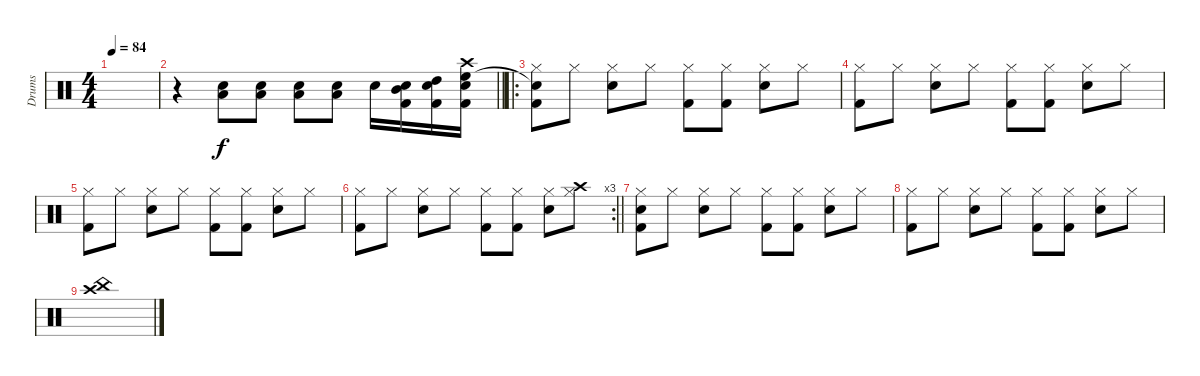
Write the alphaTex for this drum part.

\track ("Drums" "Drums") {instrument percussion}
\staff {score}
\articulation defaults
\ts (4 4)
\tempo 84
\clef neutral
\ks c
|
\barLineRight lightlight
r.4 ("Low Tom (hit)" "Snare (hit) 2").8 ("Low Tom (hit)" "Snare (hit) 2").8 ("Low Tom (hit)" "Snare (hit) 2").8 ("Low Tom (hit)" "Snare (hit) 2").8 "Snare (hit) 2".16 ("Snare (hit) 2" "Kick (hit) 2" "Mid Tom (hit)").16 ("Snare (hit) 2" "Kick (hit) 2" "High Tom (hit)").16 ("Snare (hit) 2" "Kick (hit) 2" "High Floor Tom (hit)" "Crash high (hit)").16 |
\ro
("Hi-Hat (closed)" "Kick (hit) 2" "Snare (hit)"{t}).8 "Hi-Hat (closed)".8 ("Hi-Hat (closed)" "Snare (hit) 2").8 "Hi-Hat (closed)".8 ("Hi-Hat (closed)" "Kick (hit) 2").8 ("Hi-Hat (closed)" "Kick (hit) 2").8 ("Hi-Hat (closed)" "Snare (hit) 2").8 "Hi-Hat (closed)".8 |
("Hi-Hat (closed)" "Kick (hit) 2").8 "Hi-Hat (closed)".8 ("Hi-Hat (closed)" "Snare (hit) 2").8 "Hi-Hat (closed)".8 ("Hi-Hat (closed)" "Kick (hit) 2").8 ("Hi-Hat (closed)" "Kick (hit) 2").8 ("Hi-Hat (closed)" "Snare (hit) 2").8 "Hi-Hat (closed)".8 |
("Hi-Hat (closed)" "Kick (hit) 2").8 "Hi-Hat (closed)".8 ("Hi-Hat (closed)" "Snare (hit) 2").8 "Hi-Hat (closed)".8 ("Hi-Hat (closed)" "Kick (hit) 2").8 ("Hi-Hat (closed)" "Kick (hit) 2").8 ("Hi-Hat (closed)" "Snare (hit) 2").8 "Hi-Hat (closed)".8 |
\rc 3
\barLineRight lightlight
("Hi-Hat (closed)" "Kick (hit) 2").8 "Hi-Hat (closed)".8 ("Hi-Hat (closed)" "Snare (hit) 2").8 "Hi-Hat (closed)".8 ("Hi-Hat (closed)" "Kick (hit) 2").8 ("Hi-Hat (closed)" "Kick (hit) 2").8 ("Hi-Hat (closed)" "Snare (hit) 2").8 ("Hi-Hat (closed)" "Crash high (hit)").8 |
("Hi-Hat (closed)" "Kick (hit) 2" "Snare (hit)").8 "Hi-Hat (closed)".8 ("Hi-Hat (closed)" "Snare (hit) 2").8 "Hi-Hat (closed)".8 ("Hi-Hat (closed)" "Kick (hit) 2").8 ("Hi-Hat (closed)" "Kick (hit) 2").8 ("Hi-Hat (closed)" "Snare (hit) 2").8 "Hi-Hat (closed)".8 |
("Hi-Hat (closed)" "Kick (hit) 2").8 "Hi-Hat (closed)".8 ("Hi-Hat (closed)" "Snare (hit) 2").8 "Hi-Hat (closed)".8 ("Hi-Hat (closed)" "Kick (hit) 2").8 ("Hi-Hat (closed)" "Kick (hit) 2").8 ("Hi-Hat (closed)" "Snare (hit) 2").8 "Hi-Hat (closed)".8 |
("China (hit)" "Crash high (hit)").1
